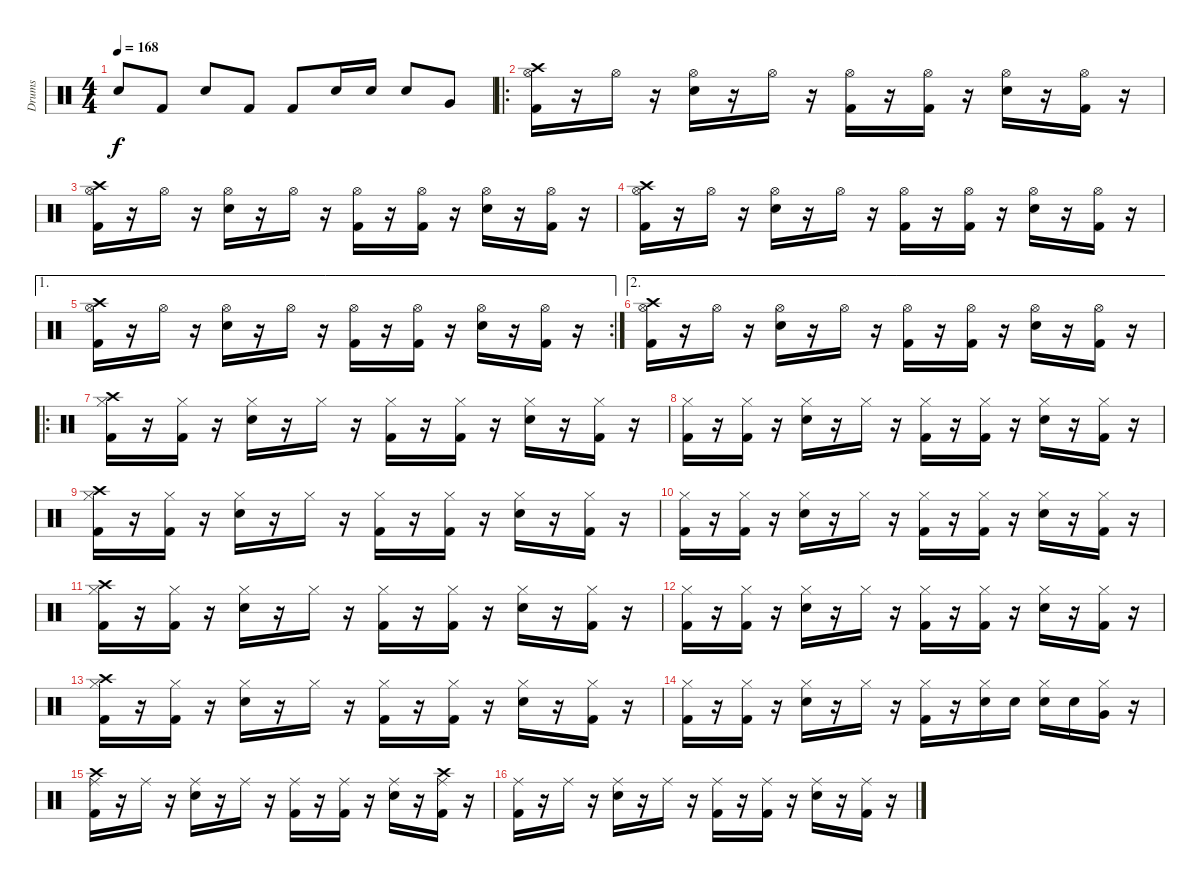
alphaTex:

\track ("Drums" "Drums") {instrument percussion}
\staff {score}
\articulation defaults
\ts (4 4)
\tempo 168
\clef neutral
\ks c "Snare (hit) 2".8{dy f} "Kick (hit) 2".8 "Snare (hit) 2".8 "Kick (hit) 2".8 "Kick (hit) 2".8 "Snare (hit) 2".16 "Snare (hit) 2".16 "Snare (hit) 2".8 "Very Low Tom (hit)".8
|
\ro
("Hi-Hat (open)" "Kick (hit) 2" "Crash high (hit)").16 r.16 "Hi-Hat (open)".16 r.16 ("Hi-Hat (open)" "Snare (hit) 2").16 r.16 "Hi-Hat (open)".16 r.16 ("Hi-Hat (open)" "Kick (hit) 2").16 r.16 ("Hi-Hat (open)" "Kick (hit) 2").16 r.16 ("Hi-Hat (open)" "Snare (hit) 2").16 r.16 ("Hi-Hat (open)" "Kick (hit) 2").16 r.16 |
("Hi-Hat (open)" "Kick (hit) 2" "Crash high (hit)").16 r.16 "Hi-Hat (open)".16 r.16 ("Hi-Hat (open)" "Snare (hit) 2").16 r.16 "Hi-Hat (open)".16 r.16 ("Hi-Hat (open)" "Kick (hit) 2").16 r.16 ("Hi-Hat (open)" "Kick (hit) 2").16 r.16 ("Hi-Hat (open)" "Snare (hit) 2").16 r.16 ("Hi-Hat (open)" "Kick (hit) 2").16 r.16 |
("Hi-Hat (open)" "Kick (hit) 2" "Crash high (hit)").16 r.16 "Hi-Hat (open)".16 r.16 ("Hi-Hat (open)" "Snare (hit) 2").16 r.16 "Hi-Hat (open)".16 r.16 ("Hi-Hat (open)" "Kick (hit) 2").16 r.16 ("Hi-Hat (open)" "Kick (hit) 2").16 r.16 ("Hi-Hat (open)" "Snare (hit) 2").16 r.16 ("Hi-Hat (open)" "Kick (hit) 2").16 r.16 |
\ae 1
\rc 2
("Hi-Hat (open)" "Kick (hit) 2" "Crash high (hit)").16 r.16 "Hi-Hat (open)".16 r.16 ("Hi-Hat (open)" "Snare (hit) 2").16 r.16 "Hi-Hat (open)".16 r.16 ("Hi-Hat (open)" "Kick (hit) 2").16 r.16 ("Hi-Hat (open)" "Kick (hit) 2").16 r.16 ("Hi-Hat (open)" "Snare (hit) 2").16 r.16 ("Hi-Hat (open)" "Kick (hit) 2").16 r.16 |
\ae 2
("Hi-Hat (open)" "Kick (hit) 2" "Crash high (hit)").16 r.16 "Hi-Hat (open)".16 r.16 ("Hi-Hat (open)" "Snare (hit) 2").16 r.16 "Hi-Hat (open)".16 r.16 ("Hi-Hat (open)" "Kick (hit) 2").16 r.16 ("Hi-Hat (open)" "Kick (hit) 2").16 r.16 ("Hi-Hat (open)" "Snare (hit) 2").16 r.16 ("Hi-Hat (open)" "Kick (hit) 2").16 r.16 |
\ro
("Hi-Hat (closed)" "Kick (hit) 2" "Crash high (hit)").16 r.16 ("Hi-Hat (closed)" "Kick (hit) 2").16 r.16 ("Hi-Hat (closed)" "Snare (hit) 2").16 r.16 "Hi-Hat (closed)".16 r.16 ("Hi-Hat (closed)" "Kick (hit) 2").16 r.16 ("Hi-Hat (closed)" "Kick (hit) 2").16 r.16 ("Hi-Hat (closed)" "Snare (hit) 2").16 r.16 ("Hi-Hat (closed)" "Kick (hit) 2").16 r.16 |
("Hi-Hat (closed)" "Kick (hit) 2").16 r.16 ("Hi-Hat (closed)" "Kick (hit) 2").16 r.16 ("Hi-Hat (closed)" "Snare (hit) 2").16 r.16 "Hi-Hat (closed)".16 r.16 ("Hi-Hat (closed)" "Kick (hit) 2").16 r.16 ("Hi-Hat (closed)" "Kick (hit) 2").16 r.16 ("Hi-Hat (closed)" "Snare (hit) 2").16 r.16 ("Hi-Hat (closed)" "Kick (hit) 2").16 r.16 |
("Hi-Hat (closed)" "Kick (hit) 2" "Crash high (hit)").16 r.16 ("Hi-Hat (closed)" "Kick (hit) 2").16 r.16 ("Hi-Hat (closed)" "Snare (hit) 2").16 r.16 "Hi-Hat (closed)".16 r.16 ("Hi-Hat (closed)" "Kick (hit) 2").16 r.16 ("Hi-Hat (closed)" "Kick (hit) 2").16 r.16 ("Hi-Hat (closed)" "Snare (hit) 2").16 r.16 ("Hi-Hat (closed)" "Kick (hit) 2").16 r.16 |
("Hi-Hat (closed)" "Kick (hit) 2").16 r.16 ("Hi-Hat (closed)" "Kick (hit) 2").16 r.16 ("Hi-Hat (closed)" "Snare (hit) 2").16 r.16 "Hi-Hat (closed)".16 r.16 ("Hi-Hat (closed)" "Kick (hit) 2").16 r.16 ("Hi-Hat (closed)" "Kick (hit) 2").16 r.16 ("Hi-Hat (closed)" "Snare (hit) 2").16 r.16 ("Hi-Hat (closed)" "Kick (hit) 2").16 r.16 |
("Hi-Hat (closed)" "Kick (hit) 2" "Crash high (hit)").16 r.16 ("Hi-Hat (closed)" "Kick (hit) 2").16 r.16 ("Hi-Hat (closed)" "Snare (hit) 2").16 r.16 "Hi-Hat (closed)".16 r.16 ("Hi-Hat (closed)" "Kick (hit) 2").16 r.16 ("Hi-Hat (closed)" "Kick (hit) 2").16 r.16 ("Hi-Hat (closed)" "Snare (hit) 2").16 r.16 ("Hi-Hat (closed)" "Kick (hit) 2").16 r.16 |
("Hi-Hat (closed)" "Kick (hit) 2").16 r.16 ("Hi-Hat (closed)" "Kick (hit) 2").16 r.16 ("Hi-Hat (closed)" "Snare (hit) 2").16 r.16 "Hi-Hat (closed)".16 r.16 ("Hi-Hat (closed)" "Kick (hit) 2").16 r.16 ("Hi-Hat (closed)" "Kick (hit) 2").16 r.16 ("Hi-Hat (closed)" "Snare (hit) 2").16 r.16 ("Hi-Hat (closed)" "Kick (hit) 2").16 r.16 |
("Hi-Hat (closed)" "Kick (hit) 2" "Crash high (hit)").16 r.16 ("Hi-Hat (closed)" "Kick (hit) 2").16 r.16 ("Hi-Hat (closed)" "Snare (hit) 2").16 r.16 "Hi-Hat (closed)".16 r.16 ("Hi-Hat (closed)" "Kick (hit) 2").16 r.16 ("Hi-Hat (closed)" "Kick (hit) 2").16 r.16 ("Hi-Hat (closed)" "Snare (hit) 2").16 r.16 ("Hi-Hat (closed)" "Kick (hit) 2").16 r.16 |
("Hi-Hat (closed)" "Kick (hit) 2").16 r.16 ("Hi-Hat (closed)" "Kick (hit) 2").16 r.16 ("Hi-Hat (closed)" "Snare (hit) 2").16 r.16 "Hi-Hat (closed)".16 r.16 ("Hi-Hat (closed)" "Kick (hit) 2").16 r.16 ("Hi-Hat (closed)" "Snare (hit) 2").16 "Snare (hit) 2".16 ("Hi-Hat (closed)" "Snare (hit) 2").16 "Snare (hit) 2".16 ("Hi-Hat (closed)" "Very Low Tom (hit)").16 r.16 |
("Ride (middle)" "Kick (hit) 2" "Crash high (hit)").16 r.16 "Ride (middle)".16 r.16 ("Ride (middle)" "Snare (hit) 2").16 r.16 "Ride (middle)".16 r.16 ("Ride (middle)" "Kick (hit) 2").16 r.16 ("Ride (middle)" "Kick (hit) 2").16 r.16 ("Ride (middle)" "Snare (hit) 2").16 r.16 ("Ride (middle)" "Kick (hit) 2" "Crash high (hit)").16 r.16 |
("Ride (middle)" "Kick (hit) 2").16 r.16 "Ride (middle)".16 r.16 ("Ride (middle)" "Snare (hit) 2").16 r.16 "Ride (middle)".16 r.16 ("Ride (middle)" "Kick (hit) 2").16 r.16 ("Ride (middle)" "Kick (hit) 2").16 r.16 ("Ride (middle)" "Snare (hit) 2").16 r.16 ("Ride (middle)" "Kick (hit) 2").16 r.16
